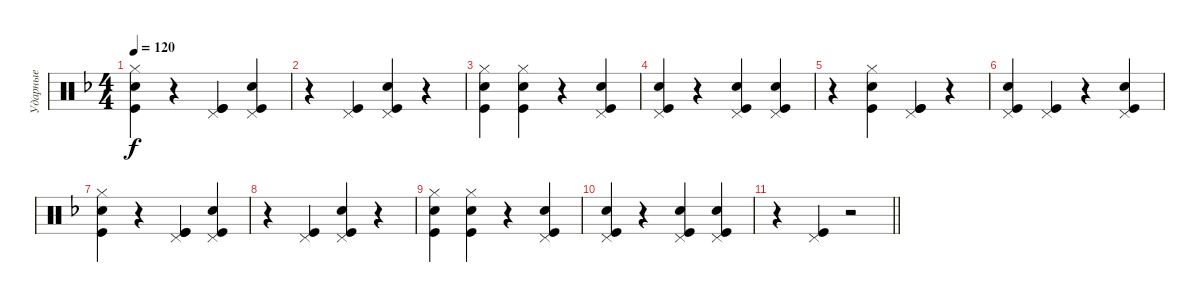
\track ("Ударные" "Ударные") {instrument percussion}
\staff {score}
\articulation defaults
\ts (4 4)
\tempo 120
\clef neutral
\ks f
("Kick (hit)" "Snare (hit) 2" "Hi-Hat (closed)").4{dy f} r.4 ("Kick (hit)" "Kick (hit)" "Pedal Hi-Hat (hit)").4 ("Kick (hit)" "Snare (hit) 2" "Pedal Hi-Hat (hit)").4 |
r.4 ("Kick (hit)" "Pedal Hi-Hat (hit)").4 ("Kick (hit)" "Snare (hit) 2" "Pedal Hi-Hat (hit)").4 r.4 |
("Kick (hit)" "Snare (hit) 2" "Hi-Hat (closed)").4 ("Kick (hit)" "Snare (hit) 2" "Hi-Hat (closed)").4 r.4 ("Kick (hit)" "Snare (hit) 2" "Pedal Hi-Hat (hit)").4 |
("Kick (hit)" "Snare (hit) 2" "Pedal Hi-Hat (hit)").4 r.4 ("Kick (hit)" "Snare (hit) 2" "Pedal Hi-Hat (hit)").4 ("Kick (hit)" "Snare (hit) 2" "Pedal Hi-Hat (hit)").4 |
r.4 ("Kick (hit)" "Snare (hit) 2" "Hi-Hat (closed)").4 ("Kick (hit)" "Kick (hit)" "Pedal Hi-Hat (hit)").4 r.4 |
("Kick (hit)" "Snare (hit) 2" "Pedal Hi-Hat (hit)").4 ("Kick (hit)" "Pedal Hi-Hat (hit)").4 r.4 ("Kick (hit)" "Snare (hit) 2" "Pedal Hi-Hat (hit)").4 |
("Kick (hit)" "Snare (hit) 2" "Hi-Hat (closed)").4 r.4 ("Kick (hit)" "Kick (hit)" "Pedal Hi-Hat (hit)").4 ("Kick (hit)" "Snare (hit) 2" "Pedal Hi-Hat (hit)").4 |
r.4 ("Kick (hit)" "Pedal Hi-Hat (hit)").4 ("Kick (hit)" "Snare (hit) 2" "Pedal Hi-Hat (hit)").4 r.4 |
("Kick (hit)" "Snare (hit) 2" "Hi-Hat (closed)").4 ("Kick (hit)" "Snare (hit) 2" "Hi-Hat (closed)").4 r.4 ("Kick (hit)" "Snare (hit) 2" "Pedal Hi-Hat (hit)").4 |
("Kick (hit)" "Snare (hit) 2" "Pedal Hi-Hat (hit)").4 r.4 ("Kick (hit)" "Snare (hit) 2" "Pedal Hi-Hat (hit)").4 ("Kick (hit)" "Snare (hit) 2" "Pedal Hi-Hat (hit)").4 |
\barLineRight lightlight
r.4 ("Kick (hit)" "Pedal Hi-Hat (hit)").4 r.2
